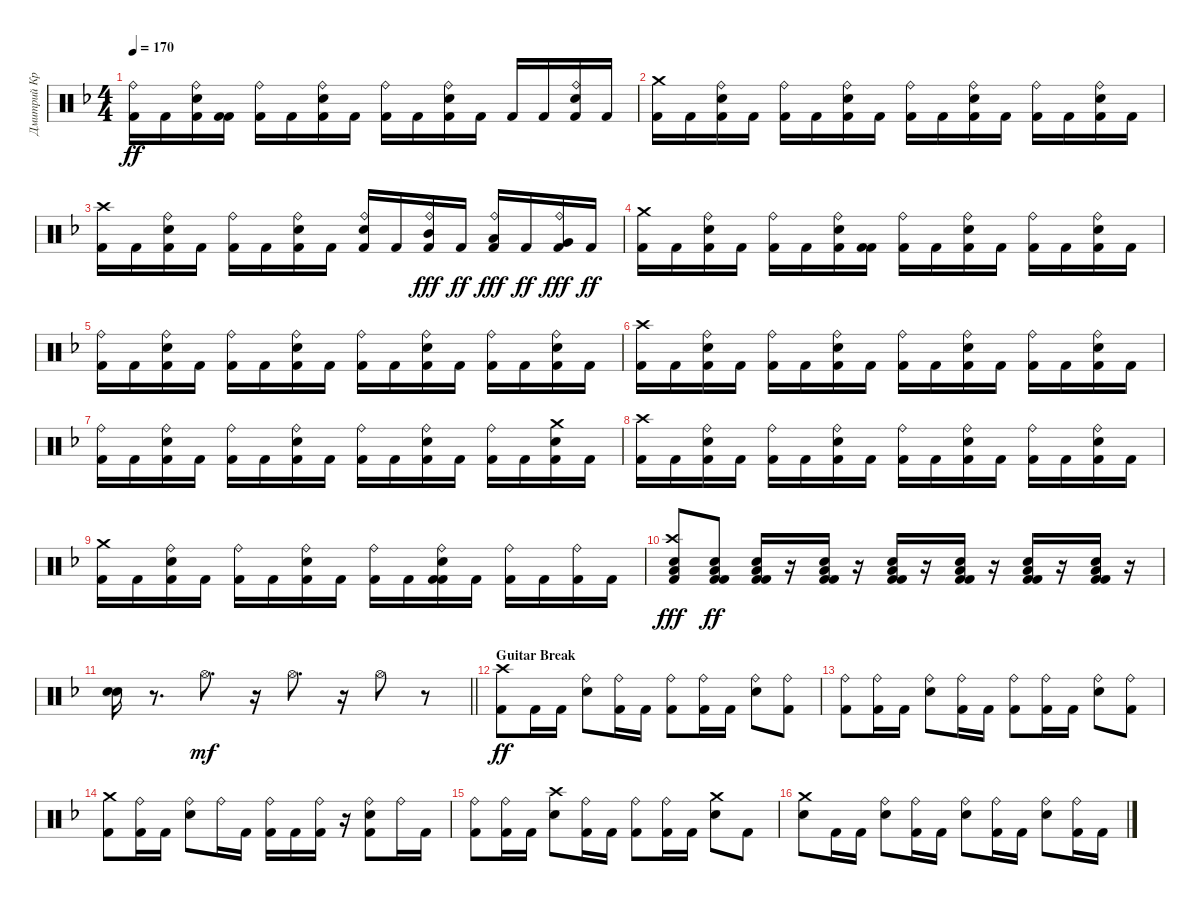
\track ("Дмитрий Кривенков" "Дмитрий Кр") {instrument percussion}
\staff {score}
\articulation defaults
\ts (4 4)
\tempo 170
\clef neutral
\ks f
("Kick (hit) 2" "Ride (bell)").16{dy ff} "Kick (hit) 2".16 ("Kick (hit) 2" "Electric Snare (hit)" "Ride (bell)").16 ("Kick (hit) 2" "Kick (hit) 2").16 ("Kick (hit) 2" "Ride (bell)").16 "Kick (hit) 2".16 ("Kick (hit) 2" "Electric Snare (hit)" "Ride (bell)").16 "Kick (hit) 2".16 ("Kick (hit) 2" "Ride (bell)").16 "Kick (hit) 2".16 ("Kick (hit) 2" "Electric Snare (hit)" "Ride (bell)").16 "Kick (hit) 2".16 "Kick (hit) 2".16 "Kick (hit) 2".16 ("Kick (hit) 2" "Electric Snare (hit)" "Ride (bell)").16 "Kick (hit) 2".16 |
("Crash medium (hit)" "Kick (hit) 2").16 "Kick (hit) 2".16 ("Ride (bell)" "Kick (hit) 2" "Electric Snare (hit)").16 "Kick (hit) 2".16 ("Kick (hit) 2" "Ride (bell)").16 "Kick (hit) 2".16 ("Kick (hit) 2" "Electric Snare (hit)" "Ride (bell)").16 "Kick (hit) 2".16 ("Kick (hit) 2" "Ride (bell)").16 "Kick (hit) 2".16 ("Kick (hit) 2" "Electric Snare (hit)" "Ride (bell)").16 "Kick (hit) 2".16 ("Kick (hit) 2" "Ride (bell)").16 "Kick (hit) 2".16 ("Kick (hit) 2" "Electric Snare (hit)" "Ride (bell)").16 "Kick (hit) 2".16 |
("Kick (hit) 2" "Crash high (hit)").16 "Kick (hit) 2".16 ("Kick (hit) 2" "Electric Snare (hit)" "Ride (bell)").16 "Kick (hit) 2".16 ("Kick (hit) 2" "Ride (bell)").16 "Kick (hit) 2".16 ("Kick (hit) 2" "Electric Snare (hit)" "Ride (bell)").16 "Kick (hit) 2".16 ("Kick (hit) 2" "Electric Snare (hit)" "Ride (bell)").16 "Kick (hit) 2".16 ("Kick (hit) 2" "Ride (bell)" "Mid Tom (hit)").16{dy fff} "Kick (hit) 2".16{dy ff} ("Kick (hit) 2" "Ride (bell)" "Low Tom (hit)").16{dy fff} "Kick (hit) 2".16{dy ff} ("Kick (hit) 2" "Ride (bell)" "Very Low Tom (hit)").16{dy fff} "Kick (hit) 2".16{dy ff} |
("Kick (hit) 2" "Crash medium (hit)").16 "Kick (hit) 2".16 ("Kick (hit) 2" "Electric Snare (hit)" "Ride (bell)").16 "Kick (hit) 2".16 ("Kick (hit) 2" "Ride (bell)").16 "Kick (hit) 2".16 ("Kick (hit) 2" "Electric Snare (hit)" "Ride (bell)").16 ("Kick (hit) 2" "Kick (hit) 2").16 ("Kick (hit) 2" "Ride (bell)").16 "Kick (hit) 2".16 ("Kick (hit) 2" "Electric Snare (hit)" "Ride (bell)").16 "Kick (hit) 2".16 ("Kick (hit) 2" "Ride (bell)").16 "Kick (hit) 2".16 ("Kick (hit) 2" "Electric Snare (hit)" "Ride (bell)").16 "Kick (hit) 2".16 |
("Kick (hit) 2" "Ride (bell)").16 "Kick (hit) 2".16 ("Kick (hit) 2" "Electric Snare (hit)" "Ride (bell)").16 "Kick (hit) 2".16 ("Kick (hit) 2" "Ride (bell)").16 "Kick (hit) 2".16 ("Kick (hit) 2" "Electric Snare (hit)" "Ride (bell)").16 "Kick (hit) 2".16 ("Kick (hit) 2" "Ride (bell)").16 "Kick (hit) 2".16 ("Kick (hit) 2" "Electric Snare (hit)" "Ride (bell)").16 "Kick (hit) 2".16 ("Kick (hit) 2" "Ride (bell)").16 "Kick (hit) 2".16 ("Kick (hit) 2" "Electric Snare (hit)" "Ride (bell)").16 "Kick (hit) 2".16 |
("Kick (hit) 2" "Crash high (hit)").16 "Kick (hit) 2".16 ("Kick (hit) 2" "Electric Snare (hit)" "Ride (bell)").16 "Kick (hit) 2".16 ("Kick (hit) 2" "Ride (bell)").16 "Kick (hit) 2".16 ("Kick (hit) 2" "Electric Snare (hit)" "Ride (bell)").16 "Kick (hit) 2".16 ("Kick (hit) 2" "Ride (bell)").16 "Kick (hit) 2".16 ("Kick (hit) 2" "Electric Snare (hit)" "Ride (bell)").16 "Kick (hit) 2".16 ("Kick (hit) 2" "Ride (bell)").16 "Kick (hit) 2".16 ("Kick (hit) 2" "Electric Snare (hit)" "Ride (bell)").16 "Kick (hit) 2".16 |
("Kick (hit) 2" "Ride (bell)").16 "Kick (hit) 2".16 ("Kick (hit) 2" "Electric Snare (hit)" "Ride (bell)").16 "Kick (hit) 2".16 ("Kick (hit) 2" "Ride (bell)").16 "Kick (hit) 2".16 ("Kick (hit) 2" "Electric Snare (hit)" "Ride (bell)").16 "Kick (hit) 2".16 ("Kick (hit) 2" "Ride (bell)").16 "Kick (hit) 2".16 ("Kick (hit) 2" "Electric Snare (hit)" "Ride (bell)").16 "Kick (hit) 2".16 ("Kick (hit) 2" "Ride (bell)").16 "Kick (hit) 2".16 ("Kick (hit) 2" "Electric Snare (hit)" "Crash medium (hit)").16 "Kick (hit) 2".16 |
("Kick (hit) 2" "Crash high (hit)").16 "Kick (hit) 2".16 ("Kick (hit) 2" "Electric Snare (hit)" "Ride (bell)").16 "Kick (hit) 2".16 ("Kick (hit) 2" "Ride (bell)").16 "Kick (hit) 2".16 ("Kick (hit) 2" "Electric Snare (hit)" "Ride (bell)").16 "Kick (hit) 2".16 ("Kick (hit) 2" "Ride (bell)").16 "Kick (hit) 2".16 ("Kick (hit) 2" "Electric Snare (hit)" "Ride (bell)").16 "Kick (hit) 2".16 ("Kick (hit) 2" "Ride (bell)").16 "Kick (hit) 2".16 ("Kick (hit) 2" "Electric Snare (hit)" "Ride (bell)").16 "Kick (hit) 2".16 |
("Kick (hit) 2" "Crash medium (hit)").16 "Kick (hit) 2".16 ("Kick (hit) 2" "Electric Snare (hit)" "Ride (bell)").16 "Kick (hit) 2".16 ("Kick (hit) 2" "Ride (bell)").16 "Kick (hit) 2".16 ("Kick (hit) 2" "Electric Snare (hit)" "Ride (bell)").16 "Kick (hit) 2".16 ("Kick (hit) 2" "Ride (bell)").16 "Kick (hit) 2".16 ("Kick (hit) 2" "Kick (hit) 2" "Electric Snare (hit)" "Ride (bell)").16 "Kick (hit) 2".16 ("Kick (hit) 2" "Ride (bell)").16 "Kick (hit) 2".16 ("Kick (hit) 2" "Ride (bell)").16 "Kick (hit) 2".16 |
("Crash high (hit)" "Kick (hit) 2" "Electric Snare (hit)" "Low Floor Tom (hit)").8{dy fff} ("Electric Snare (hit)" "Low Floor Tom (hit)" "Kick (hit) 2" "Kick (hit) 2").8{dy ff} ("Electric Snare (hit)" "Low Floor Tom (hit)" "Kick (hit) 2" "Kick (hit) 2").16 r.16 ("Electric Snare (hit)" "Low Floor Tom (hit)" "Kick (hit) 2" "Kick (hit) 2").16 r.16 ("Electric Snare (hit)" "Low Floor Tom (hit)" "Kick (hit) 2" "Kick (hit) 2").16 r.16 ("Electric Snare (hit)" "Low Floor Tom (hit)" "Kick (hit) 2" "Kick (hit) 2").16 r.16 ("Low Floor Tom (hit)" "Electric Snare (hit)" "Kick (hit) 2" "Kick (hit) 2").16 r.16 ("Electric Snare (hit)" "Low Floor Tom (hit)" "Kick (hit) 2" "Kick (hit) 2").16 r.16 |
\barLineRight lightlight
("Electric Snare (hit)" "Electric Snare (hit)").16 r.8{d} "Hi-Hat (open)".8{d dy mf} r.16 "Hi-Hat (open)".8{d} r.16 "Hi-Hat (open)".8 r.8 |
\section ("" "Guitar Break")
("Crash high (hit)" "Kick (hit) 2").8{dy ff} "Kick (hit) 2".16 "Kick (hit) 2".16 ("Electric Snare (hit)" "Ride (bell)").8 ("Kick (hit) 2" "Ride (bell)").16 "Kick (hit) 2".16 ("Kick (hit) 2" "Ride (bell)").8 ("Kick (hit) 2" "Ride (bell)").16 "Kick (hit) 2".16 ("Electric Snare (hit)" "Ride (bell)").8 ("Kick (hit) 2" "Ride (bell)").8 |
("Kick (hit) 2" "Ride (bell)").8 ("Kick (hit) 2" "Ride (bell)").16 "Kick (hit) 2".16 ("Electric Snare (hit)" "Ride (bell)").8 ("Kick (hit) 2" "Ride (bell)").16 "Kick (hit) 2".16 ("Kick (hit) 2" "Ride (bell)").8 ("Kick (hit) 2" "Ride (bell)").16 "Kick (hit) 2".16 ("Electric Snare (hit)" "Ride (bell)").8 ("Kick (hit) 2" "Ride (bell)").8 |
("Kick (hit) 2" "Crash medium (hit)").8 ("Kick (hit) 2" "Ride (bell)").16 "Kick (hit) 2".16 ("Electric Snare (hit)" "Ride (bell)").8 "Ride (bell)".16 "Kick (hit) 2".16 ("Kick (hit) 2" "Ride (bell)").16 "Kick (hit) 2".16 ("Kick (hit) 2" "Ride (bell)").16 r.16 ("Kick (hit) 2" "Ride (bell)" "Electric Snare (hit)").8 "Ride (bell)".16 "Kick (hit) 2".16 |
("Ride (bell)" "Kick (hit) 2").8 ("Ride (bell)" "Kick (hit) 2").16 "Kick (hit) 2".16 ("Crash high (hit)" "Electric Snare (hit)").8 ("Ride (bell)" "Kick (hit) 2").16 "Kick (hit) 2".16 ("Ride (bell)" "Kick (hit) 2").8 ("Ride (bell)" "Kick (hit) 2").16 "Kick (hit) 2".16 ("Crash medium (hit)" "Electric Snare (hit)").8 "Kick (hit) 2".8 |
("Crash medium (hit)" "Electric Snare (hit)").8 "Kick (hit) 2".16 "Kick (hit) 2".16 ("Ride (bell)" "Electric Snare (hit)").8 ("Ride (bell)" "Kick (hit) 2").16 "Kick (hit) 2".16 ("Ride (bell)" "Electric Snare (hit)").8 ("Ride (bell)" "Kick (hit) 2").16 "Kick (hit) 2".16 ("Ride (bell)" "Electric Snare (hit)").8 ("Ride (bell)" "Kick (hit) 2").16 "Kick (hit) 2".16
